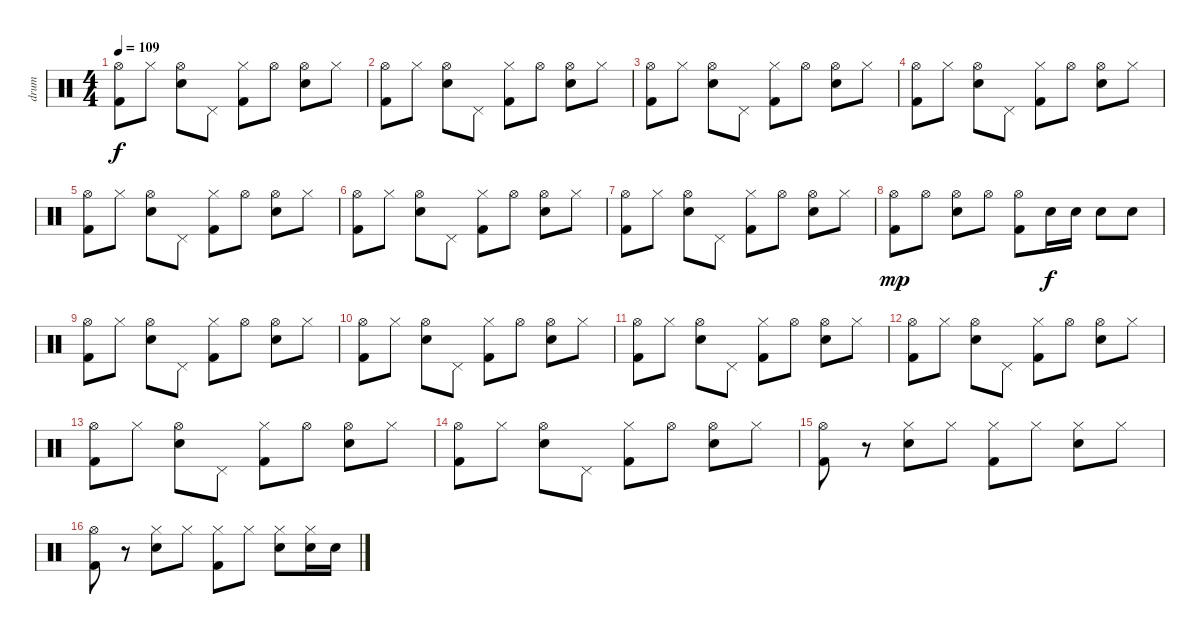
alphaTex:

\track ("drum" "drum") {instrument percussion}
\staff {score}
\articulation defaults
\ts (4 4)
\tempo 109
\clef neutral
\ks c
("Hi-Hat (open)" "Kick (hit) 2").8{dy f} "Hi-Hat (closed)".8 ("Hi-Hat (open)" "Electric Snare (hit)").8 "Pedal Hi-Hat (hit)".8 ("Hi-Hat (closed)" "Kick (hit) 2").8 "Hi-Hat (open)".8 ("Hi-Hat (open)" "Electric Snare (hit)").8 "Hi-Hat (closed)".8 |
("Hi-Hat (open)" "Kick (hit) 2").8 "Hi-Hat (closed)".8 ("Hi-Hat (open)" "Electric Snare (hit)").8 "Pedal Hi-Hat (hit)".8 ("Hi-Hat (closed)" "Kick (hit) 2").8 "Hi-Hat (open)".8 ("Hi-Hat (open)" "Electric Snare (hit)").8 "Hi-Hat (closed)".8 |
("Hi-Hat (open)" "Kick (hit) 2").8 "Hi-Hat (closed)".8 ("Hi-Hat (open)" "Electric Snare (hit)").8 "Pedal Hi-Hat (hit)".8 ("Hi-Hat (closed)" "Kick (hit) 2").8 "Hi-Hat (open)".8 ("Hi-Hat (open)" "Electric Snare (hit)").8 "Hi-Hat (closed)".8 |
("Hi-Hat (open)" "Kick (hit) 2").8 "Hi-Hat (closed)".8 ("Hi-Hat (open)" "Electric Snare (hit)").8 "Pedal Hi-Hat (hit)".8 ("Hi-Hat (closed)" "Kick (hit) 2").8 "Hi-Hat (open)".8 ("Hi-Hat (open)" "Electric Snare (hit)").8 "Hi-Hat (closed)".8 |
("Hi-Hat (open)" "Kick (hit) 2").8 "Hi-Hat (closed)".8 ("Hi-Hat (open)" "Electric Snare (hit)").8 "Pedal Hi-Hat (hit)".8 ("Hi-Hat (closed)" "Kick (hit) 2").8 "Hi-Hat (open)".8 ("Hi-Hat (open)" "Electric Snare (hit)").8 "Hi-Hat (closed)".8 |
("Hi-Hat (open)" "Kick (hit) 2").8 "Hi-Hat (closed)".8 ("Hi-Hat (open)" "Electric Snare (hit)").8 "Pedal Hi-Hat (hit)".8 ("Hi-Hat (closed)" "Kick (hit) 2").8 "Hi-Hat (open)".8 ("Hi-Hat (open)" "Electric Snare (hit)").8 "Hi-Hat (closed)".8 |
("Hi-Hat (open)" "Kick (hit) 2").8 "Hi-Hat (closed)".8 ("Hi-Hat (open)" "Electric Snare (hit)").8 "Pedal Hi-Hat (hit)".8 ("Hi-Hat (closed)" "Kick (hit) 2").8 "Hi-Hat (open)".8 ("Hi-Hat (open)" "Electric Snare (hit)").8 "Hi-Hat (closed)".8 |
("Hi-Hat (open)" "Kick (hit) 2").8{dy mp} "Hi-Hat (open)".8 ("Hi-Hat (open)" "Electric Snare (hit)").8 "Hi-Hat (open)".8 ("Hi-Hat (open)" "Kick (hit) 2").8 "Electric Snare (hit)".16{dy f} "Electric Snare (hit)".16 "Electric Snare (hit)".8 "Electric Snare (hit)".8 |
("Hi-Hat (open)" "Kick (hit) 2").8 "Hi-Hat (closed)".8 ("Hi-Hat (open)" "Electric Snare (hit)").8 "Pedal Hi-Hat (hit)".8 ("Hi-Hat (closed)" "Kick (hit) 2").8 "Hi-Hat (open)".8 ("Hi-Hat (open)" "Electric Snare (hit)").8 "Hi-Hat (closed)".8 |
("Hi-Hat (open)" "Kick (hit) 2").8 "Hi-Hat (closed)".8 ("Hi-Hat (open)" "Electric Snare (hit)").8 "Pedal Hi-Hat (hit)".8 ("Hi-Hat (closed)" "Kick (hit) 2").8 "Hi-Hat (open)".8 ("Hi-Hat (open)" "Electric Snare (hit)").8 "Hi-Hat (closed)".8 |
("Hi-Hat (open)" "Kick (hit) 2").8 "Hi-Hat (closed)".8 ("Hi-Hat (open)" "Electric Snare (hit)").8 "Pedal Hi-Hat (hit)".8 ("Hi-Hat (closed)" "Kick (hit) 2").8 "Hi-Hat (open)".8 ("Hi-Hat (open)" "Electric Snare (hit)").8 "Hi-Hat (closed)".8 |
("Hi-Hat (open)" "Kick (hit) 2").8 "Hi-Hat (closed)".8 ("Hi-Hat (open)" "Electric Snare (hit)").8 "Pedal Hi-Hat (hit)".8 ("Hi-Hat (closed)" "Kick (hit) 2").8 "Hi-Hat (open)".8 ("Hi-Hat (open)" "Electric Snare (hit)").8 "Hi-Hat (closed)".8 |
("Hi-Hat (open)" "Kick (hit) 2").8 "Hi-Hat (closed)".8 ("Hi-Hat (open)" "Electric Snare (hit)").8 "Pedal Hi-Hat (hit)".8 ("Hi-Hat (closed)" "Kick (hit) 2").8 "Hi-Hat (open)".8 ("Hi-Hat (open)" "Electric Snare (hit)").8 "Hi-Hat (closed)".8 |
("Hi-Hat (open)" "Kick (hit) 2").8 "Hi-Hat (closed)".8 ("Hi-Hat (open)" "Electric Snare (hit)").8 "Pedal Hi-Hat (hit)".8 ("Hi-Hat (closed)" "Kick (hit) 2").8 "Hi-Hat (open)".8 ("Hi-Hat (open)" "Electric Snare (hit)").8 "Hi-Hat (closed)".8 |
("Hi-Hat (open)" "Kick (hit) 2").8 r.8 ("Hi-Hat (closed)" "Electric Snare (hit)").8 "Hi-Hat (closed)".8 ("Hi-Hat (closed)" "Kick (hit) 2").8 "Hi-Hat (closed)".8 ("Hi-Hat (closed)" "Electric Snare (hit)").8 "Hi-Hat (closed)".8 |
("Hi-Hat (open)" "Kick (hit) 2").8 r.8 ("Hi-Hat (closed)" "Electric Snare (hit)").8 "Hi-Hat (closed)".8 ("Hi-Hat (closed)" "Kick (hit) 2").8 "Hi-Hat (closed)".8 ("Hi-Hat (closed)" "Electric Snare (hit)").8 ("Hi-Hat (closed)" "Electric Snare (hit)").16 "Electric Snare (hit)".16
